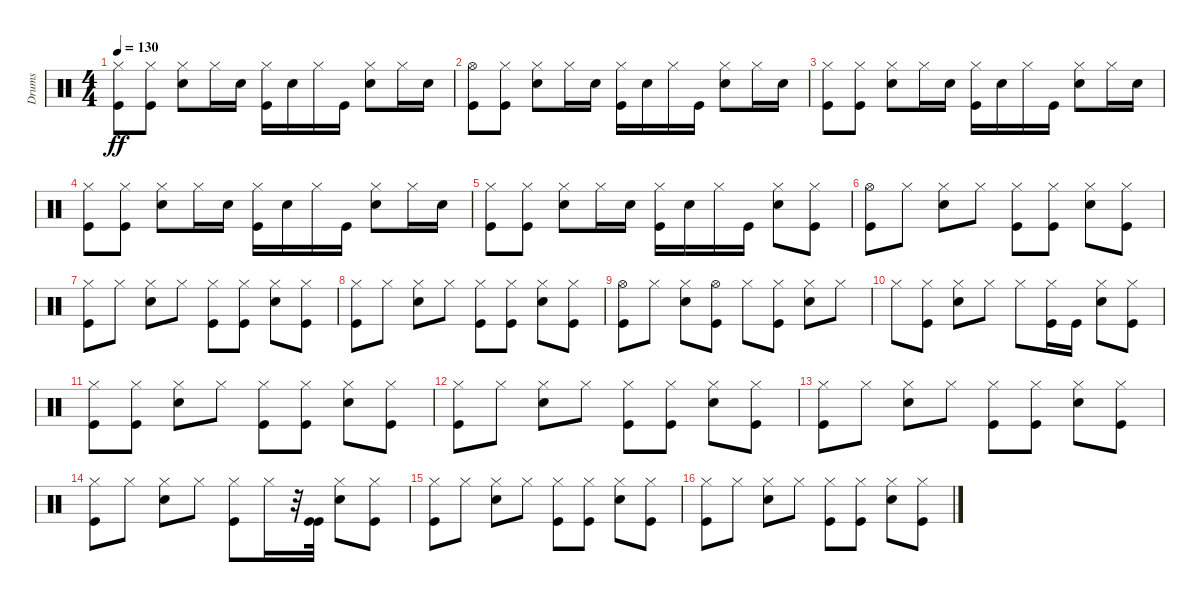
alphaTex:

\track ("Drums" "Drums") {instrument percussion}
\staff {score}
\articulation defaults
\ts (4 4)
\tempo 130
\clef neutral
\ks c
("Kick (hit)" "Hi-Hat (closed)").8{dy ff} ("Kick (hit)" "Hi-Hat (closed)").8 ("Snare (hit) 2" "Hi-Hat (closed)").8 "Hi-Hat (closed)".16 "Snare (hit) 2".16 ("Kick (hit)" "Hi-Hat (closed)").16 "Snare (hit) 2".16 "Hi-Hat (closed)".16 "Kick (hit)".16 ("Snare (hit) 2" "Hi-Hat (closed)").8 "Hi-Hat (closed)".16 "Snare (hit) 2".16 |
("Kick (hit)" "Hi-Hat (open)").8 ("Kick (hit)" "Hi-Hat (closed)").8 ("Snare (hit) 2" "Hi-Hat (closed)").8 "Hi-Hat (closed)".16 "Snare (hit) 2".16 ("Kick (hit)" "Hi-Hat (closed)").16 "Snare (hit) 2".16 "Hi-Hat (closed)".16 "Kick (hit)".16 ("Snare (hit) 2" "Hi-Hat (closed)").8 "Hi-Hat (closed)".16 "Snare (hit) 2".16 |
("Kick (hit)" "Hi-Hat (closed)").8 ("Kick (hit)" "Hi-Hat (closed)").8 ("Snare (hit) 2" "Hi-Hat (closed)").8 "Hi-Hat (closed)".16 "Snare (hit) 2".16 ("Kick (hit)" "Hi-Hat (closed)").16 "Snare (hit) 2".16 "Hi-Hat (closed)".16 "Kick (hit)".16 ("Snare (hit) 2" "Hi-Hat (closed)").8 "Hi-Hat (closed)".16 "Snare (hit) 2".16 |
("Kick (hit)" "Hi-Hat (closed)").8 ("Kick (hit)" "Hi-Hat (closed)").8 ("Snare (hit) 2" "Hi-Hat (closed)").8 "Hi-Hat (closed)".16 "Snare (hit) 2".16 ("Kick (hit)" "Hi-Hat (closed)").16 "Snare (hit) 2".16 "Hi-Hat (closed)".16 "Kick (hit)".16 ("Snare (hit) 2" "Hi-Hat (closed)").8 "Hi-Hat (closed)".16 "Snare (hit) 2".16 |
("Kick (hit)" "Hi-Hat (closed)").8 ("Kick (hit)" "Hi-Hat (closed)").8 ("Snare (hit) 2" "Hi-Hat (closed)").8 "Hi-Hat (closed)".16 "Snare (hit) 2".16 ("Kick (hit)" "Hi-Hat (closed)").16 "Snare (hit) 2".16 "Hi-Hat (closed)".16 "Kick (hit)".16 ("Snare (hit) 2" "Hi-Hat (closed)").8 ("Kick (hit)" "Hi-Hat (closed)").8 |
("Kick (hit)" "Hi-Hat (open)").8 "Hi-Hat (closed)".8 ("Snare (hit) 2" "Hi-Hat (closed)").8 "Hi-Hat (closed)".8 ("Kick (hit)" "Hi-Hat (closed)").8 ("Kick (hit)" "Hi-Hat (closed)").8 ("Snare (hit) 2" "Hi-Hat (closed)").8 ("Kick (hit)" "Hi-Hat (closed)").8 |
("Kick (hit)" "Hi-Hat (closed)").8 "Hi-Hat (closed)".8 ("Snare (hit) 2" "Hi-Hat (closed)").8 "Hi-Hat (closed)".8 ("Kick (hit)" "Hi-Hat (closed)").8 ("Kick (hit)" "Hi-Hat (closed)").8 ("Snare (hit) 2" "Hi-Hat (closed)").8 ("Kick (hit)" "Hi-Hat (closed)").8 |
("Kick (hit)" "Hi-Hat (closed)").8 "Hi-Hat (closed)".8 ("Snare (hit) 2" "Hi-Hat (closed)").8 "Hi-Hat (closed)".8 ("Kick (hit)" "Hi-Hat (closed)").8 ("Kick (hit)" "Hi-Hat (closed)").8 ("Snare (hit) 2" "Hi-Hat (closed)").8 ("Kick (hit)" "Hi-Hat (closed)").8 |
("Kick (hit)" "Hi-Hat (open)").8 "Hi-Hat (closed)".8 ("Snare (hit) 2" "Hi-Hat (closed)").8 ("Kick (hit)" "Hi-Hat (open)").8 "Hi-Hat (closed)".8 ("Kick (hit)" "Hi-Hat (closed)").8 ("Snare (hit) 2" "Hi-Hat (closed)").8 "Hi-Hat (closed)".8 |
"Hi-Hat (closed)".8 ("Kick (hit)" "Hi-Hat (closed)").8 ("Snare (hit) 2" "Hi-Hat (closed)").8 "Hi-Hat (closed)".8 "Hi-Hat (closed)".8 ("Kick (hit)" "Hi-Hat (closed)").16 "Kick (hit)".16 ("Snare (hit) 2" "Hi-Hat (closed)").8 ("Kick (hit)" "Hi-Hat (closed)").8 |
("Kick (hit)" "Hi-Hat (closed)").8 ("Kick (hit)" "Hi-Hat (closed)").8 ("Snare (hit) 2" "Hi-Hat (closed)").8 "Hi-Hat (closed)".8 ("Kick (hit)" "Hi-Hat (closed)").8 ("Kick (hit)" "Hi-Hat (closed)").8 ("Snare (hit) 2" "Hi-Hat (closed)").8 ("Kick (hit)" "Hi-Hat (closed)").8 |
("Kick (hit)" "Hi-Hat (closed)").8 "Hi-Hat (closed)".8 ("Snare (hit) 2" "Hi-Hat (closed)").8 "Hi-Hat (closed)".8 ("Kick (hit)" "Hi-Hat (closed)").8 ("Kick (hit)" "Hi-Hat (closed)").8 ("Snare (hit) 2" "Hi-Hat (closed)").8 ("Kick (hit)" "Hi-Hat (closed)").8 |
("Kick (hit)" "Hi-Hat (closed)").8 "Hi-Hat (closed)".8 ("Snare (hit) 2" "Hi-Hat (closed)").8 "Hi-Hat (closed)".8 ("Kick (hit)" "Hi-Hat (closed)").8 ("Kick (hit)" "Hi-Hat (closed)").8 ("Snare (hit) 2" "Hi-Hat (closed)").8 ("Kick (hit)" "Hi-Hat (closed)").8 |
("Kick (hit)" "Hi-Hat (closed)").8 "Hi-Hat (closed)".8 ("Snare (hit) 2" "Hi-Hat (closed)").8 "Hi-Hat (closed)".8 ("Kick (hit)" "Hi-Hat (closed)").8 "Hi-Hat (closed)".16 r.32 ("Kick (hit)" "Kick (hit)").32 ("Snare (hit) 2" "Hi-Hat (closed)").8 ("Kick (hit)" "Hi-Hat (closed)").8 |
("Kick (hit)" "Hi-Hat (closed)").8 "Hi-Hat (closed)".8 ("Snare (hit) 2" "Hi-Hat (closed)").8 "Hi-Hat (closed)".8 ("Kick (hit)" "Hi-Hat (closed)").8 ("Kick (hit)" "Hi-Hat (closed)").8 ("Snare (hit) 2" "Hi-Hat (closed)").8 ("Kick (hit)" "Hi-Hat (closed)").8 |
("Kick (hit)" "Hi-Hat (closed)").8 "Hi-Hat (closed)".8 ("Snare (hit) 2" "Hi-Hat (closed)").8 "Hi-Hat (closed)".8 ("Kick (hit)" "Hi-Hat (closed)").8 ("Kick (hit)" "Hi-Hat (closed)").8 ("Snare (hit) 2" "Hi-Hat (closed)").8 ("Kick (hit)" "Hi-Hat (closed)").8
